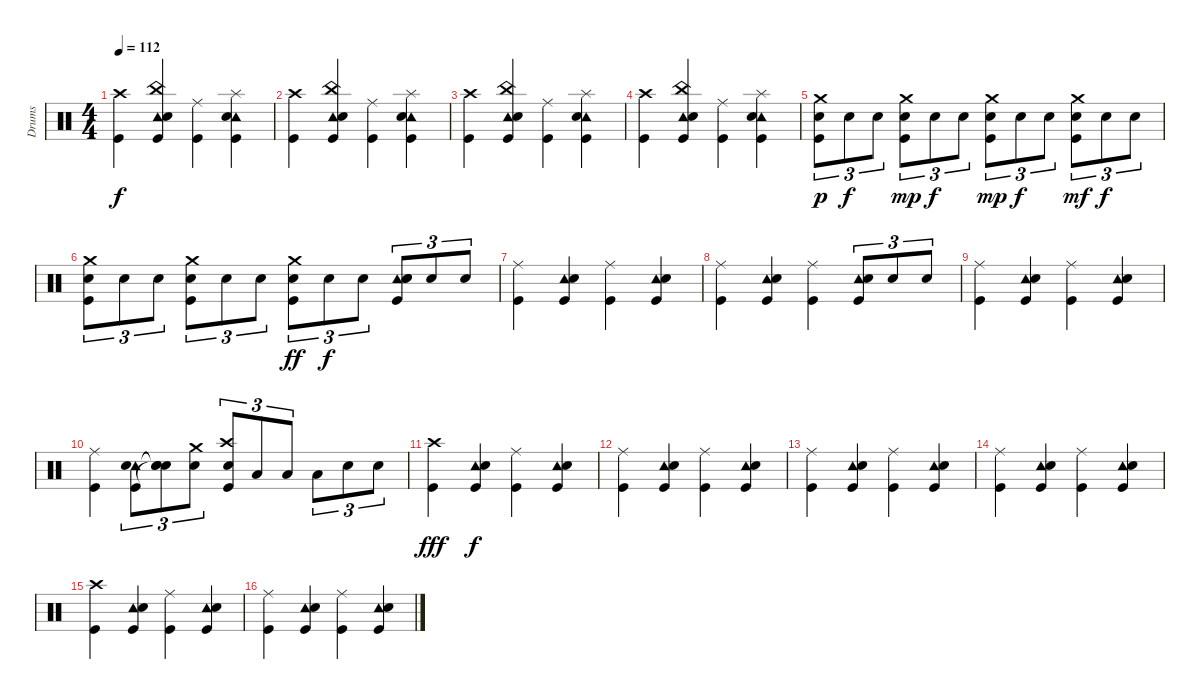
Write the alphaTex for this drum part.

\track ("Drums" "Drums") {instrument percussion}
\staff {score}
\articulation defaults
\ts (4 4)
\tempo 112
\clef neutral
\ks c
("Kick (hit)" "Crash high (hit)").4{dy f} ("China (hit)" "Tambourine (hit)" "Snare (hit) 2" "Kick (hit)").4 ("Kick (hit)" "Ride (middle)").4 ("Splash (hit)" "Tambourine (hit)" "Snare (hit) 2" "Kick (hit)").4 |
("Kick (hit)" "Crash high (hit)").4 ("China (hit)" "Tambourine (hit)" "Snare (hit) 2" "Kick (hit)").4 ("Kick (hit)" "Ride (middle)").4 ("Splash (hit)" "Tambourine (hit)" "Snare (hit) 2" "Kick (hit)").4 |
("Kick (hit)" "Crash high (hit)").4 ("China (hit)" "Tambourine (hit)" "Snare (hit) 2" "Kick (hit)").4 ("Kick (hit)" "Ride (middle)").4 ("Splash (hit)" "Tambourine (hit)" "Snare (hit) 2" "Kick (hit)").4 |
("Kick (hit)" "Crash high (hit)").4 ("China (hit)" "Tambourine (hit)" "Snare (hit) 2" "Kick (hit)").4 ("Kick (hit)" "Ride (middle)").4 ("Splash (hit)" "Tambourine (hit)" "Snare (hit) 2" "Kick (hit)").4 |
("Crash medium (hit)" "Kick (hit)" "Snare (hit) 2").8{tu (3 2) dy p} "Snare (hit) 2".8{tu (3 2) dy f} "Snare (hit) 2".8{tu (3 2)} ("Crash medium (hit)" "Kick (hit)" "Snare (hit) 2").8{tu (3 2) dy mp} "Snare (hit) 2".8{tu (3 2) dy f} "Snare (hit) 2".8{tu (3 2)} ("Crash medium (hit)" "Kick (hit)" "Snare (hit) 2").8{tu (3 2) dy mp} "Snare (hit) 2".8{tu (3 2) dy f} "Snare (hit) 2".8{tu (3 2)} ("Crash medium (hit)" "Kick (hit)" "Snare (hit) 2").8{tu (3 2) dy mf} "Snare (hit) 2".8{tu (3 2) dy f} "Snare (hit) 2".8{tu (3 2)} |
("Crash medium (hit)" "Kick (hit)" "Snare (hit) 2").8{tu (3 2)} "Snare (hit) 2".8{tu (3 2)} "Snare (hit) 2".8{tu (3 2)} ("Crash medium (hit)" "Kick (hit)" "Snare (hit) 2").8{tu (3 2)} "Snare (hit) 2".8{tu (3 2)} "Snare (hit) 2".8{tu (3 2)} ("Crash medium (hit)" "Kick (hit)" "Snare (hit) 2").8{tu (3 2) dy ff} "Snare (hit) 2".8{tu (3 2) dy f} "Snare (hit) 2".8{tu (3 2)} ("Tambourine (hit)" "Snare (hit) 2" "Kick (hit)" "Snare (hit) 2").8{tu (3 2)} "Snare (hit) 2".8{tu (3 2)} "Snare (hit) 2".8{tu (3 2)} |
("Kick (hit)" "Ride (middle)").4 ("Tambourine (hit)" "Snare (hit) 2" "Kick (hit)").4 ("Kick (hit)" "Ride (middle)").4 ("Tambourine (hit)" "Snare (hit) 2" "Kick (hit)").4 |
("Kick (hit)" "Ride (middle)").4 ("Tambourine (hit)" "Snare (hit) 2" "Kick (hit)").4 ("Kick (hit)" "Ride (middle)").4 ("Tambourine (hit)" "Snare (hit) 2" "Kick (hit)").8{tu (3 2)} "Snare (hit) 2".8{tu (3 2)} "Snare (hit) 2".8{tu (3 2)} |
("Kick (hit)" "Ride (middle)").4 ("Tambourine (hit)" "Snare (hit) 2" "Kick (hit)").4 ("Kick (hit)" "Ride (middle)").4 ("Tambourine (hit)" "Snare (hit) 2" "Kick (hit)").4 |
("Kick (hit)" "Ride (middle)").4 ("Tambourine (hit)" "Snare (hit) 2" "Kick (hit)").8{tu (3 2)} ("Snare (hit)"{t} "Snare (hit)"{t} "Snare (hit)"{t}).8{tu (3 2)} ("Crash medium (hit)" "Snare (hit) 2").8{tu (3 2)} ("Crash high (hit)" "Snare (hit) 2" "Kick (hit)").8{tu (3 2)} "Low Tom (hit)".8{tu (3 2)} "Low Tom (hit)".8{tu (3 2)} "Low Tom (hit)".8{tu (3 2)} "Snare (hit) 2".8{tu (3 2)} "Snare (hit) 2".8{tu (3 2)} |
("Kick (hit)" "Crash high (hit)").4{dy fff} ("Tambourine (hit)" "Snare (hit) 2" "Kick (hit)").4{dy f} ("Kick (hit)" "Ride (middle)").4 ("Tambourine (hit)" "Snare (hit) 2" "Kick (hit)").4 |
("Kick (hit)" "Ride (middle)").4 ("Tambourine (hit)" "Snare (hit) 2" "Kick (hit)").4 ("Kick (hit)" "Ride (middle)").4 ("Tambourine (hit)" "Snare (hit) 2" "Kick (hit)").4 |
("Kick (hit)" "Ride (middle)").4 ("Tambourine (hit)" "Snare (hit) 2" "Kick (hit)").4 ("Kick (hit)" "Ride (middle)").4 ("Tambourine (hit)" "Snare (hit) 2" "Kick (hit)").4 |
("Kick (hit)" "Ride (middle)").4 ("Tambourine (hit)" "Snare (hit) 2" "Kick (hit)").4 ("Kick (hit)" "Ride (middle)").4 ("Tambourine (hit)" "Snare (hit) 2" "Kick (hit)").4 |
("Kick (hit)" "Crash high (hit)").4 ("Tambourine (hit)" "Snare (hit) 2" "Kick (hit)").4 ("Kick (hit)" "Ride (middle)").4 ("Tambourine (hit)" "Snare (hit) 2" "Kick (hit)").4 |
("Kick (hit)" "Ride (middle)").4 ("Tambourine (hit)" "Snare (hit) 2" "Kick (hit)").4 ("Kick (hit)" "Ride (middle)").4 ("Tambourine (hit)" "Snare (hit) 2" "Kick (hit)").4
